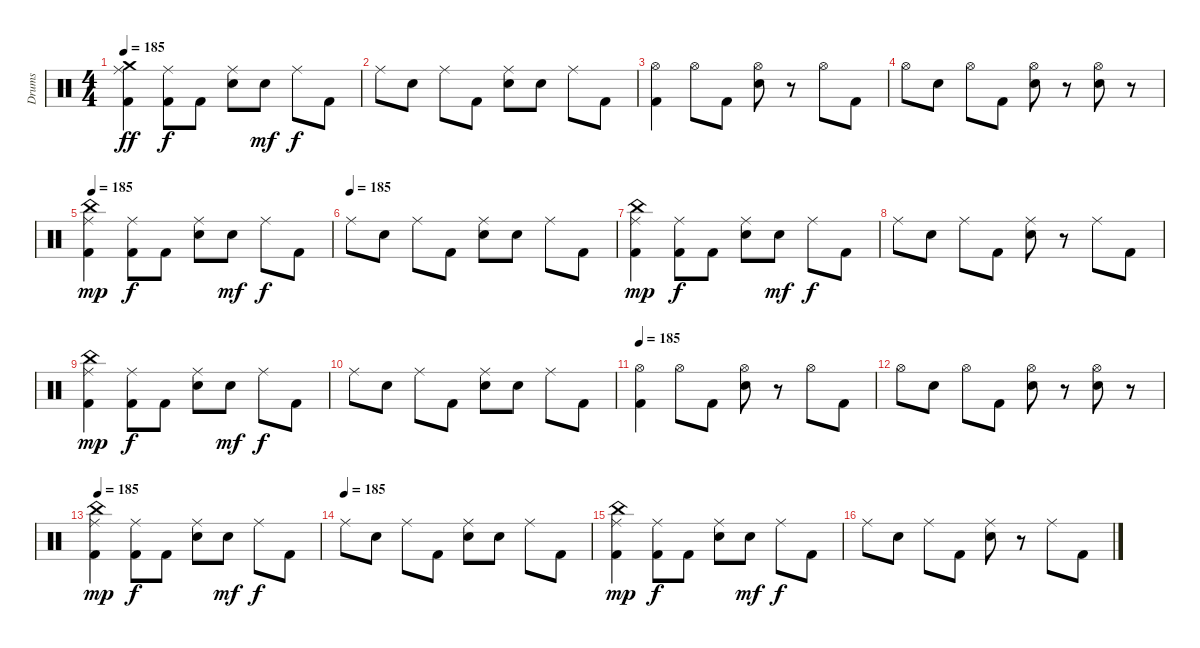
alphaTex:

\track ("Drums" "Drums") {instrument percussion}
\staff {score}
\articulation defaults
\ts (4 4)
\tempo 185
\clef neutral
\ks c
("Ride (middle)" "Crash medium (hit)" "Kick (hit) 2").4{dy ff volume 12} ("Ride (middle)" "Kick (hit) 2").8{dy f} "Kick (hit) 2".8 ("Ride (middle)" "Snare (hit) 2").8 "Snare (hit) 2".8{dy mf} "Ride (middle)".8{dy f} "Kick (hit) 2".8 |
"Ride (middle)".8 "Snare (hit) 2".8 "Ride (middle)".8 "Kick (hit) 2".8 ("Ride (middle)" "Snare (hit) 2").8 "Snare (hit) 2".8 "Ride (middle)".8 "Kick (hit) 2".8 |
("Hi-Hat (open)" "Kick (hit) 2").4 "Hi-Hat (open)".8 "Kick (hit) 2".8 ("Hi-Hat (open)" "Snare (hit) 2").8 r.8 "Hi-Hat (open)".8 "Kick (hit) 2".8 |
"Hi-Hat (open)".8 "Snare (hit) 2".8 "Hi-Hat (open)".8 "Kick (hit) 2".8 ("Hi-Hat (open)" "Snare (hit) 2").8 r.8 ("Hi-Hat (open)" "Snare (hit) 2").8 r.8 |
\tempo 185
("Ride (middle)" "China (hit)" "Kick (hit) 2").4{dy mp volume 12} ("Ride (middle)" "Kick (hit) 2").8{dy f} "Kick (hit) 2".8 ("Ride (middle)" "Snare (hit) 2").8 "Snare (hit) 2".8{dy mf} "Ride (middle)".8{dy f} "Kick (hit) 2".8 |
\tempo (185)
"Ride (middle)".8 "Snare (hit) 2".8 "Ride (middle)".8 "Kick (hit) 2".8 ("Ride (middle)" "Snare (hit) 2").8 "Snare (hit) 2".8 "Ride (middle)".8 "Kick (hit) 2".8 |
("Ride (middle)" "China (hit)" "Kick (hit) 2").4{dy mp} ("Ride (middle)" "Kick (hit) 2").8{dy f} "Kick (hit) 2".8 ("Ride (middle)" "Snare (hit) 2").8 "Snare (hit) 2".8{dy mf} "Ride (middle)".8{dy f} "Kick (hit) 2".8 |
"Ride (middle)".8 "Snare (hit) 2".8 "Ride (middle)".8 "Kick (hit) 2".8 ("Ride (middle)" "Snare (hit) 2").8 r.8 "Ride (middle)".8 "Kick (hit) 2".8 |
("Ride (middle)" "China (hit)" "Kick (hit) 2").4{dy mp} ("Ride (middle)" "Kick (hit) 2").8{dy f} "Kick (hit) 2".8 ("Ride (middle)" "Snare (hit) 2").8 "Snare (hit) 2".8{dy mf} "Ride (middle)".8{dy f} "Kick (hit) 2".8 |
"Ride (middle)".8 "Snare (hit) 2".8 "Ride (middle)".8 "Kick (hit) 2".8 ("Ride (middle)" "Snare (hit) 2").8 "Snare (hit) 2".8 "Ride (middle)".8 "Kick (hit) 2".8 |
\tempo 185
("Hi-Hat (open)" "Kick (hit) 2").4 "Hi-Hat (open)".8 "Kick (hit) 2".8 ("Hi-Hat (open)" "Snare (hit) 2").8 r.8 "Hi-Hat (open)".8 "Kick (hit) 2".8 |
"Hi-Hat (open)".8 "Snare (hit) 2".8 "Hi-Hat (open)".8 "Kick (hit) 2".8 ("Hi-Hat (open)" "Snare (hit) 2").8 r.8 ("Hi-Hat (open)" "Snare (hit) 2").8 r.8 |
\tempo 185
("Ride (middle)" "China (hit)" "Kick (hit) 2").4{dy mp volume 12} ("Ride (middle)" "Kick (hit) 2").8{dy f} "Kick (hit) 2".8 ("Ride (middle)" "Snare (hit) 2").8 "Snare (hit) 2".8{dy mf} "Ride (middle)".8{dy f} "Kick (hit) 2".8 |
\tempo (185)
"Ride (middle)".8 "Snare (hit) 2".8 "Ride (middle)".8 "Kick (hit) 2".8 ("Ride (middle)" "Snare (hit) 2").8 "Snare (hit) 2".8 "Ride (middle)".8 "Kick (hit) 2".8 |
("Ride (middle)" "China (hit)" "Kick (hit) 2").4{dy mp} ("Ride (middle)" "Kick (hit) 2").8{dy f} "Kick (hit) 2".8 ("Ride (middle)" "Snare (hit) 2").8 "Snare (hit) 2".8{dy mf} "Ride (middle)".8{dy f} "Kick (hit) 2".8 |
"Ride (middle)".8 "Snare (hit) 2".8 "Ride (middle)".8 "Kick (hit) 2".8 ("Ride (middle)" "Snare (hit) 2").8 r.8 "Ride (middle)".8 "Kick (hit) 2".8
